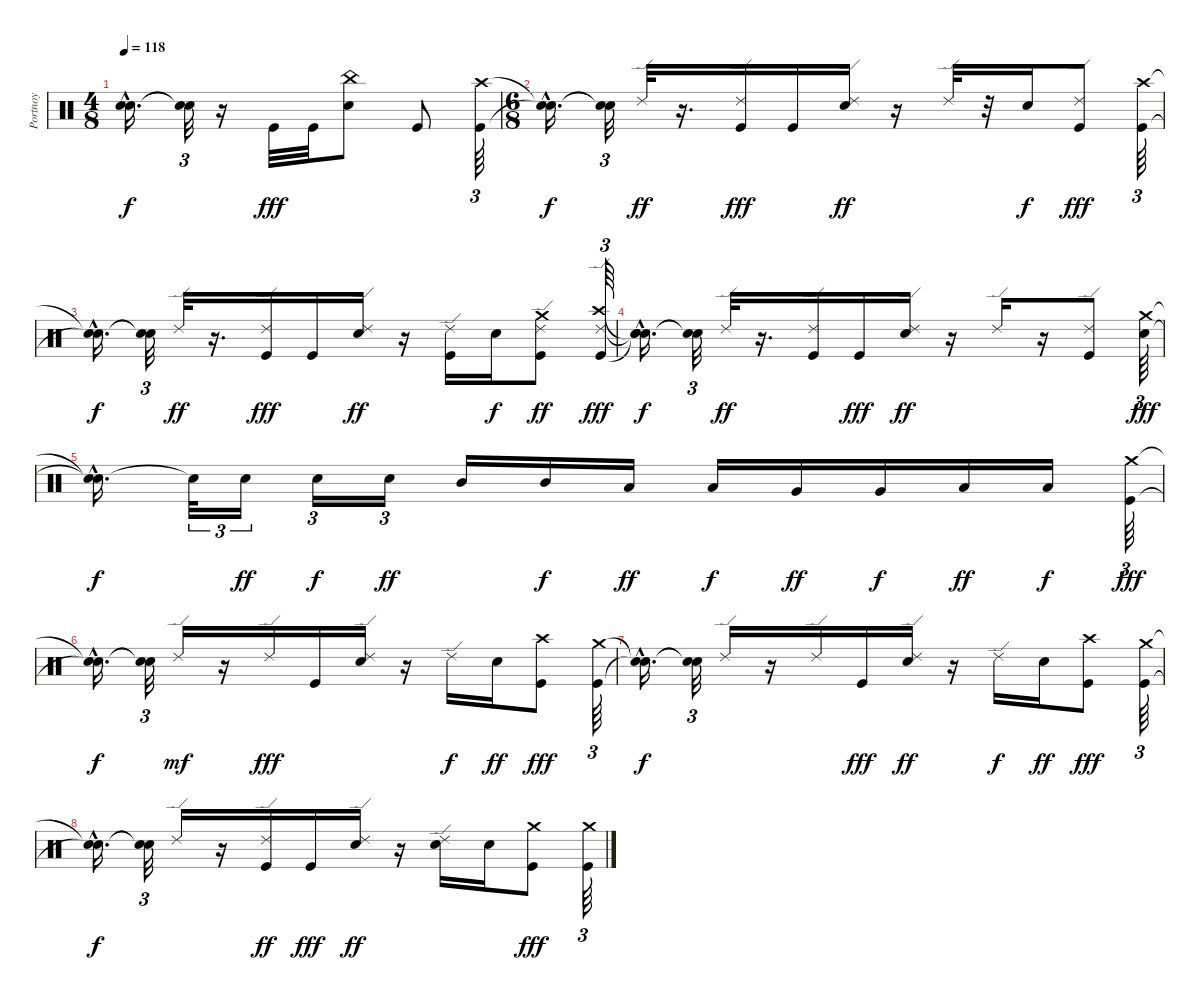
\track ("Portnoy" "Portnoy") {instrument percussion}
\staff {score}
\articulation defaults
\ts (4 8)
\tempo 118
\clef neutral
\ks c
("Snare (hit)"{hac t} "Snare (hit)"{hac t}).16{d dy f} ("Snare (hit)"{t} "Snare (hit)"{t}).32{tu (3 2)} r.16 "Kick (hit)".32{dy fff} "Kick (hit)".32 ("Snare (hit) 2" "China (hit)").8 "Kick (hit)".8 ("Kick (hit)" "Crash high (hit)").64{tu (3 2)} |
\ts (6 8)
("Snare (hit)"{hac t} "Snare (hit)"{hac t}).16{d dy f} ("Snare (hit)"{t} "Snare (hit)"{t}).32{tu (3 2)} "Ride (edge) 2".32{dy ff} r.16{d} ("Ride (edge) 2" "Kick (hit)").16{dy fff} "Kick (hit)".16 ("Snare (hit) 2" "Ride (edge) 2").16{dy ff} r.16 "Ride (edge) 2".32 r.32 "Snare (hit) 2".16{dy f} ("Ride (edge) 2" "Kick (hit)").8{dy fff} ("Crash high (hit)" "Kick (hit)").64{tu (3 2)} |
("Snare (hit)"{hac t} "Snare (hit)"{hac t}).16{d dy f} ("Snare (hit)"{t} "Snare (hit)"{t}).32{tu (3 2)} "Ride (edge) 2".32{dy ff} r.16{d} ("Ride (edge) 2" "Kick (hit)").16{dy fff} "Kick (hit)".16 ("Snare (hit) 2" "Ride (edge) 2").16{dy ff} r.16 ("Kick (hit)" "Ride (edge) 2").16 "Snare (hit) 2".16{dy f} ("Kick (hit)" "Crash medium (hit)" "Ride (edge) 2").8{dy ff} ("Kick (hit)" "Crash high (hit)" "Ride (edge) 2").64{tu (3 2) dy fff} |
("Snare (hit)"{hac t} "Snare (hit)"{hac t} "Snare (hit)"{t}).16{d dy f} ("Snare (hit)"{t} "Snare (hit)"{t}).32{tu (3 2)} "Ride (edge) 2".32{dy ff} r.16{d} ("Kick (hit)" "Ride (edge) 2").16 "Kick (hit)".16{dy fff} ("Snare (hit) 2" "Ride (edge) 2").16{dy ff} r.16 "Ride (edge) 2".16 r.16 ("Kick (hit)" "Ride (edge) 2").8 ("Snare (hit) 2" "Crash medium (hit)").64{tu (3 2) dy fff} |
("Snare (hit)"{hac t} "Snare (hit)"{hac t}).16{d dy f} "Snare (hit)"{t}.32{tu (3 2)} "Snare (hit) 2".16{tu (3 2) dy ff} "Snare (hit) 2".16{tu (3 2) dy f} "Snare (hit) 2".16{tu (3 2) dy ff} "Mid Tom (hit)".16 "Mid Tom (hit)".16{dy f} "Low Tom (hit)".16{dy ff} "Low Tom (hit)".16{dy f} "Very Low Tom (hit)".16{dy ff} "Very Low Tom (hit)".16{dy f} "Low Floor Tom (hit)".16{dy ff} "Low Floor Tom (hit)".16{dy f} ("Crash medium (hit)" "Kick (hit)").64{tu (3 2) dy fff} |
("Snare (hit)"{hac t} "Snare (hit)"{hac t}).16{d dy f} ("Snare (hit)"{t} "Snare (hit)"{t}).32{tu (3 2)} "Ride (edge) 2".16{dy mf} r.16 "Ride (edge) 2".16{dy fff} "Kick (hit)".16 ("Ride (edge) 2" "Snare (hit) 2").16 r.16 "Ride (edge) 2".16{dy f} "Snare (hit) 2".16{dy ff} ("Crash high (hit)" "Kick (hit)").8{dy fff} ("Kick (hit)" "Crash medium (hit)").64{tu (3 2)} |
("Snare (hit)"{hac t} "Snare (hit)"{hac t}).16{d dy f} ("Snare (hit)"{t} "Snare (hit)"{t}).32{tu (3 2)} "Ride (edge) 2".16 r.16 "Ride (edge) 2".16 "Kick (hit)".16{dy fff} ("Snare (hit) 2" "Ride (edge) 2").16{dy ff} r.16 "Ride (edge) 2".16{dy f} "Snare (hit) 2".16{dy ff} ("Kick (hit)" "Crash high (hit)").8{dy fff} ("Crash medium (hit)" "Kick (hit)").64{tu (3 2)} |
("Snare (hit)"{hac t} "Snare (hit)"{hac t}).16{d dy f} ("Snare (hit)"{t} "Snare (hit)"{t}).32{tu (3 2)} "Ride (edge) 2".16 r.16 ("Kick (hit)" "Ride (edge) 2").16{dy ff} "Kick (hit)".16{dy fff} ("Snare (hit) 2" "Ride (edge) 2").16{dy ff} r.16 ("Snare (hit) 2" "Ride (edge) 2").16 "Snare (hit) 2".16 ("Crash medium (hit)" "Kick (hit)").8{dy fff} ("Crash medium (hit)" "Kick (hit)").64{tu (3 2)}
